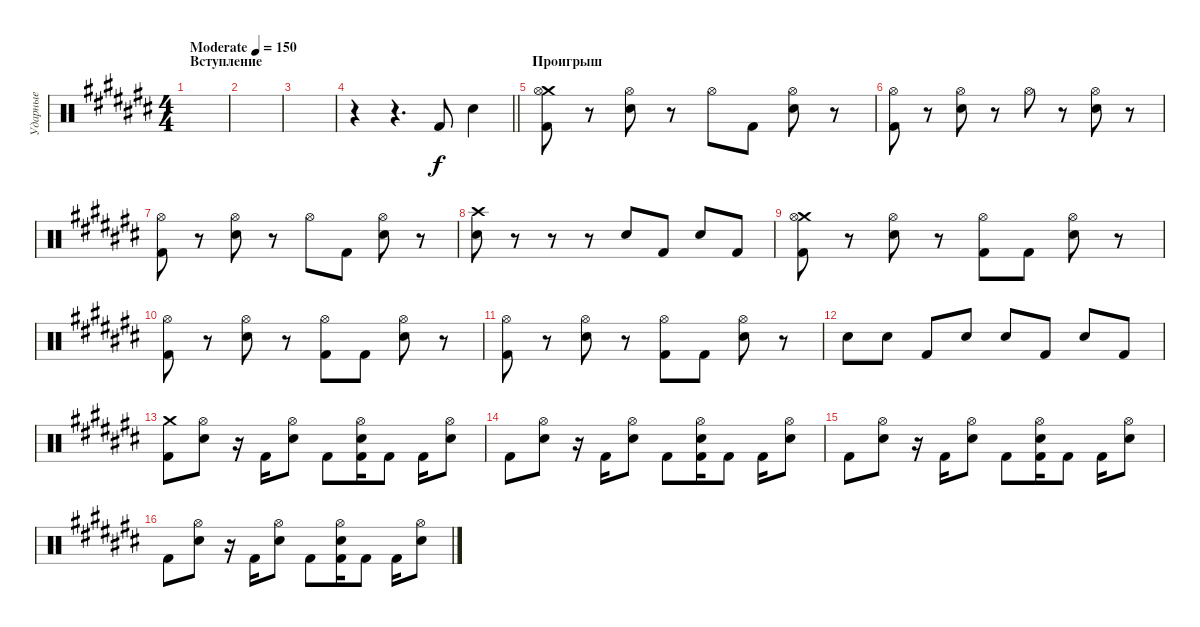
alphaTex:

\track ("Ударные" "Ударные") {instrument percussion}
\staff {score}
\articulation defaults
\ts (4 4)
\section ("" "Вступление")
\tempo (150 "Moderate")
\clef neutral
\ks a#minor
|
|
|
\barLineRight lightlight
r.4 r.4{d} "Kick (hit) 2".8 "Electric Snare (hit)".4 |
\section ("" "Проигрыш")
("Crash medium (hit)" "Kick (hit) 2" "Hi-Hat (open)").8 r.8 ("Electric Snare (hit)" "Hi-Hat (open)").8 r.8 "Hi-Hat (open)".8 "Kick (hit) 2".8 ("Electric Snare (hit)" "Hi-Hat (open)").8 r.8 |
("Kick (hit) 2" "Hi-Hat (open)").8 r.8 ("Electric Snare (hit)" "Hi-Hat (open)").8 r.8 "Hi-Hat (open)".8 r.8 ("Electric Snare (hit)" "Hi-Hat (open)").8 r.8 |
("Kick (hit) 2" "Hi-Hat (open)").8 r.8 ("Electric Snare (hit)" "Hi-Hat (open)").8 r.8 "Hi-Hat (open)".8 "Kick (hit) 2".8 ("Electric Snare (hit)" "Hi-Hat (open)").8 r.8 |
("Crash high (hit)" "Electric Snare (hit)").8 r.8 r.8 r.8 "Electric Snare (hit)".8 "Kick (hit) 2".8 "Electric Snare (hit)".8 "Kick (hit) 2".8 |
("Crash medium (hit)" "Kick (hit) 2" "Hi-Hat (open)").8 r.8 ("Electric Snare (hit)" "Hi-Hat (open)").8 r.8 ("Kick (hit) 2" "Hi-Hat (open)").8 "Kick (hit) 2".8 ("Electric Snare (hit)" "Hi-Hat (open)").8 r.8 |
("Kick (hit) 2" "Hi-Hat (open)").8 r.8 ("Electric Snare (hit)" "Hi-Hat (open)").8 r.8 ("Kick (hit) 2" "Hi-Hat (open)").8 "Kick (hit) 2".8 ("Electric Snare (hit)" "Hi-Hat (open)").8 r.8 |
("Kick (hit) 2" "Hi-Hat (open)").8 r.8 ("Electric Snare (hit)" "Hi-Hat (open)").8 r.8 ("Kick (hit) 2" "Hi-Hat (open)").8 "Kick (hit) 2".8 ("Electric Snare (hit)" "Hi-Hat (open)").8 r.8 |
"Electric Snare (hit)".8 "Electric Snare (hit)".8 "Kick (hit) 2".8 "Electric Snare (hit)".8 "Electric Snare (hit)".8 "Kick (hit) 2".8 "Electric Snare (hit)".8 "Kick (hit) 2".8 |
("Crash medium (hit)" "Kick (hit) 2").8 ("Hi-Hat (open)" "Electric Snare (hit)").8 r.16 "Kick (hit) 2".16 ("Hi-Hat (open)" "Electric Snare (hit)").8 "Kick (hit) 2".8 ("Kick (hit) 2" "Hi-Hat (open)" "Electric Snare (hit)").16 "Kick (hit) 2".8 "Kick (hit) 2".16 ("Hi-Hat (open)" "Electric Snare (hit)").8 |
"Kick (hit) 2".8 ("Hi-Hat (open)" "Electric Snare (hit)").8 r.16 "Kick (hit) 2".16 ("Hi-Hat (open)" "Electric Snare (hit)").8 "Kick (hit) 2".8 ("Kick (hit) 2" "Hi-Hat (open)" "Electric Snare (hit)").16 "Kick (hit) 2".8 "Kick (hit) 2".16 ("Hi-Hat (open)" "Electric Snare (hit)").8 |
"Kick (hit) 2".8 ("Hi-Hat (open)" "Electric Snare (hit)").8 r.16 "Kick (hit) 2".16 ("Hi-Hat (open)" "Electric Snare (hit)").8 "Kick (hit) 2".8 ("Kick (hit) 2" "Hi-Hat (open)" "Electric Snare (hit)").16 "Kick (hit) 2".8 "Kick (hit) 2".16 ("Hi-Hat (open)" "Electric Snare (hit)").8 |
"Kick (hit) 2".8 ("Hi-Hat (open)" "Electric Snare (hit)").8 r.16 "Kick (hit) 2".16 ("Hi-Hat (open)" "Electric Snare (hit)").8 "Kick (hit) 2".8 ("Kick (hit) 2" "Hi-Hat (open)" "Electric Snare (hit)").16 "Kick (hit) 2".8 "Kick (hit) 2".16 ("Hi-Hat (open)" "Electric Snare (hit)").8
